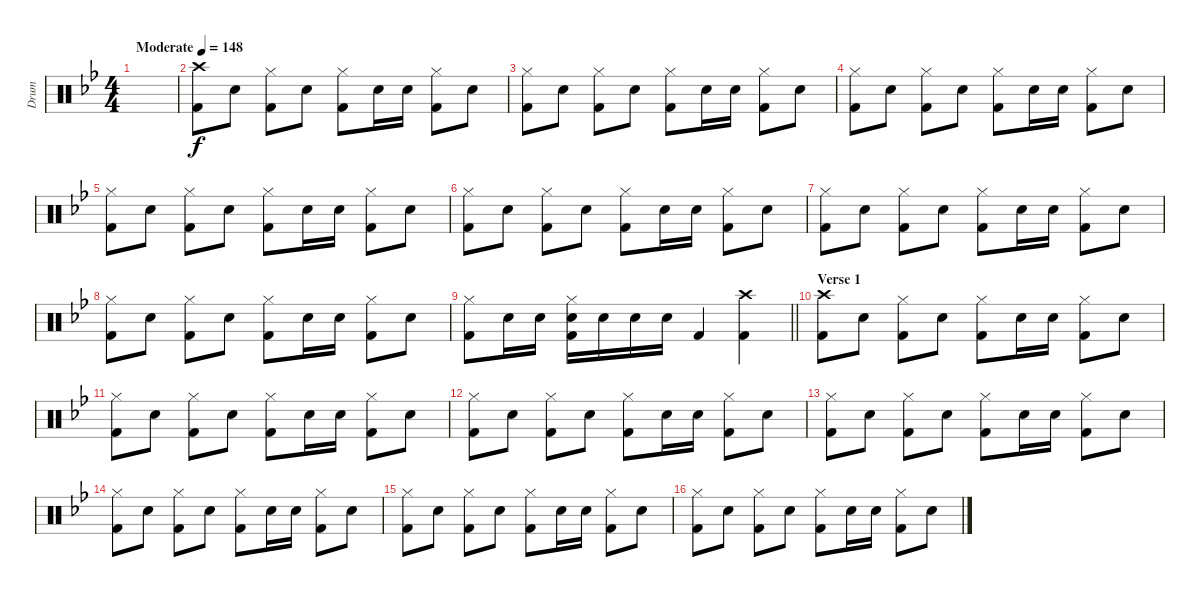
\track ("Drum" "Drum") {instrument percussion}
\staff {score}
\articulation defaults
\ts (4 4)
\section ("" "")
\tempo (148 "Moderate")
\clef neutral
\ks bb
|
("Crash high (hit)" "Kick (hit) 2").8 "Snare (hit) 2".8 ("Hi-Hat (closed)" "Kick (hit) 2").8 "Snare (hit) 2".8 ("Hi-Hat (closed)" "Kick (hit) 2").8 "Snare (hit) 2".16 "Snare (hit) 2".16 ("Hi-Hat (closed)" "Kick (hit) 2").8 "Snare (hit) 2".8 |
("Hi-Hat (closed)" "Kick (hit) 2").8 "Snare (hit) 2".8 ("Hi-Hat (closed)" "Kick (hit) 2").8 "Snare (hit) 2".8 ("Hi-Hat (closed)" "Kick (hit) 2").8 "Snare (hit) 2".16 "Snare (hit) 2".16 ("Hi-Hat (closed)" "Kick (hit) 2").8 "Snare (hit) 2".8 |
("Hi-Hat (closed)" "Kick (hit) 2").8 "Snare (hit) 2".8 ("Hi-Hat (closed)" "Kick (hit) 2").8 "Snare (hit) 2".8 ("Hi-Hat (closed)" "Kick (hit) 2").8 "Snare (hit) 2".16 "Snare (hit) 2".16 ("Hi-Hat (closed)" "Kick (hit) 2").8 "Snare (hit) 2".8 |
("Hi-Hat (closed)" "Kick (hit) 2").8 "Snare (hit) 2".8 ("Hi-Hat (closed)" "Kick (hit) 2").8 "Snare (hit) 2".8 ("Hi-Hat (closed)" "Kick (hit) 2").8 "Snare (hit) 2".16 "Snare (hit) 2".16 ("Hi-Hat (closed)" "Kick (hit) 2").8 "Snare (hit) 2".8 |
("Hi-Hat (closed)" "Kick (hit) 2").8 "Snare (hit) 2".8 ("Hi-Hat (closed)" "Kick (hit) 2").8 "Snare (hit) 2".8 ("Hi-Hat (closed)" "Kick (hit) 2").8 "Snare (hit) 2".16 "Snare (hit) 2".16 ("Hi-Hat (closed)" "Kick (hit) 2").8 "Snare (hit) 2".8 |
("Hi-Hat (closed)" "Kick (hit) 2").8 "Snare (hit) 2".8 ("Hi-Hat (closed)" "Kick (hit) 2").8 "Snare (hit) 2".8 ("Hi-Hat (closed)" "Kick (hit) 2").8 "Snare (hit) 2".16 "Snare (hit) 2".16 ("Hi-Hat (closed)" "Kick (hit) 2").8 "Snare (hit) 2".8 |
("Hi-Hat (closed)" "Kick (hit) 2").8 "Snare (hit) 2".8 ("Hi-Hat (closed)" "Kick (hit) 2").8 "Snare (hit) 2".8 ("Hi-Hat (closed)" "Kick (hit) 2").8 "Snare (hit) 2".16 "Snare (hit) 2".16 ("Hi-Hat (closed)" "Kick (hit) 2").8 "Snare (hit) 2".8 |
\barLineRight lightlight
("Hi-Hat (closed)" "Kick (hit) 2").8 "Snare (hit) 2".16 "Snare (hit) 2".16 ("Hi-Hat (closed)" "Snare (hit) 2" "Kick (hit) 2").16 "Snare (hit) 2".16 "Snare (hit) 2".16 "Snare (hit) 2".16 "Kick (hit) 2".4 ("Crash high (hit)" "Kick (hit) 2").4 |
\section ("" "Verse 1")
("Crash high (hit)" "Kick (hit) 2").8 "Snare (hit) 2".8 ("Hi-Hat (closed)" "Kick (hit) 2").8 "Snare (hit) 2".8 ("Hi-Hat (closed)" "Kick (hit) 2").8 "Snare (hit) 2".16 "Snare (hit) 2".16 ("Hi-Hat (closed)" "Kick (hit) 2").8 "Snare (hit) 2".8 |
("Hi-Hat (closed)" "Kick (hit) 2").8 "Snare (hit) 2".8 ("Hi-Hat (closed)" "Kick (hit) 2").8 "Snare (hit) 2".8 ("Hi-Hat (closed)" "Kick (hit) 2").8 "Snare (hit) 2".16 "Snare (hit) 2".16 ("Hi-Hat (closed)" "Kick (hit) 2").8 "Snare (hit) 2".8 |
("Hi-Hat (closed)" "Kick (hit) 2").8 "Snare (hit) 2".8 ("Hi-Hat (closed)" "Kick (hit) 2").8 "Snare (hit) 2".8 ("Hi-Hat (closed)" "Kick (hit) 2").8 "Snare (hit) 2".16 "Snare (hit) 2".16 ("Hi-Hat (closed)" "Kick (hit) 2").8 "Snare (hit) 2".8 |
("Hi-Hat (closed)" "Kick (hit) 2").8 "Snare (hit) 2".8 ("Hi-Hat (closed)" "Kick (hit) 2").8 "Snare (hit) 2".8 ("Hi-Hat (closed)" "Kick (hit) 2").8 "Snare (hit) 2".16 "Snare (hit) 2".16 ("Hi-Hat (closed)" "Kick (hit) 2").8 "Snare (hit) 2".8 |
("Hi-Hat (closed)" "Kick (hit) 2").8 "Snare (hit) 2".8 ("Hi-Hat (closed)" "Kick (hit) 2").8 "Snare (hit) 2".8 ("Hi-Hat (closed)" "Kick (hit) 2").8 "Snare (hit) 2".16 "Snare (hit) 2".16 ("Hi-Hat (closed)" "Kick (hit) 2").8 "Snare (hit) 2".8 |
("Hi-Hat (closed)" "Kick (hit) 2").8 "Snare (hit) 2".8 ("Hi-Hat (closed)" "Kick (hit) 2").8 "Snare (hit) 2".8 ("Hi-Hat (closed)" "Kick (hit) 2").8 "Snare (hit) 2".16 "Snare (hit) 2".16 ("Hi-Hat (closed)" "Kick (hit) 2").8 "Snare (hit) 2".8 |
("Hi-Hat (closed)" "Kick (hit) 2").8 "Snare (hit) 2".8 ("Hi-Hat (closed)" "Kick (hit) 2").8 "Snare (hit) 2".8 ("Hi-Hat (closed)" "Kick (hit) 2").8 "Snare (hit) 2".16 "Snare (hit) 2".16 ("Hi-Hat (closed)" "Kick (hit) 2").8 "Snare (hit) 2".8
